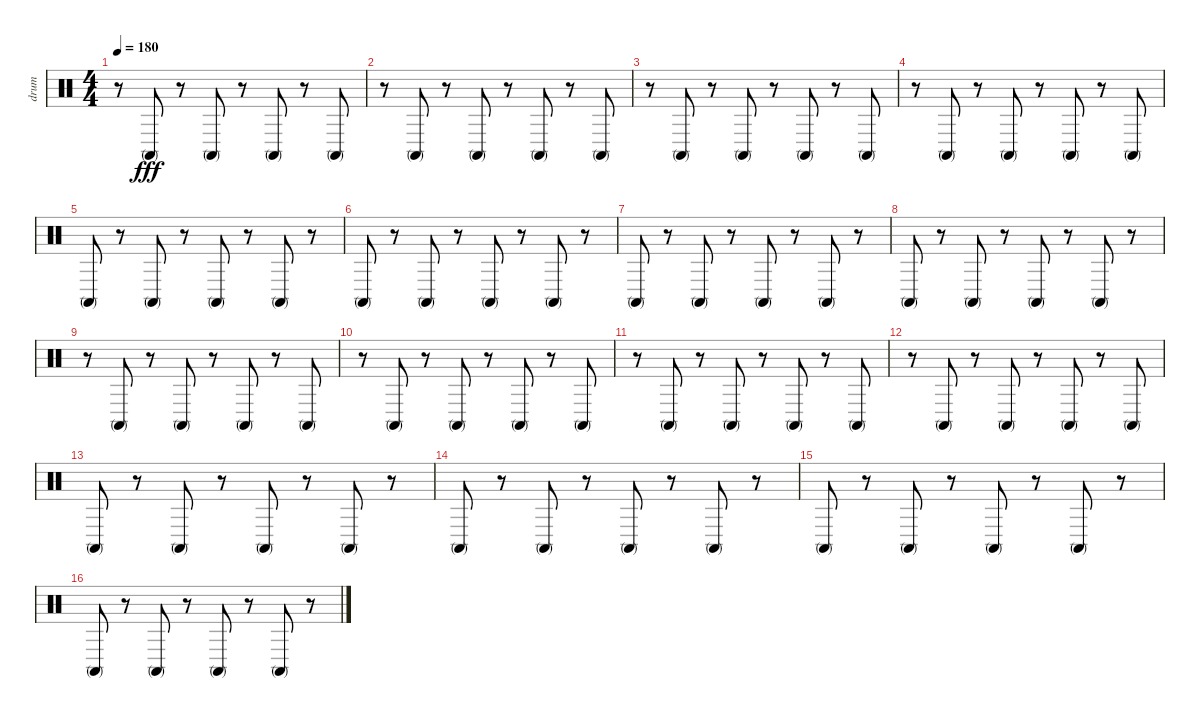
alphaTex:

\track ("drum" "drum") {instrument percussion}
\staff {score}
\articulation defaults
\ts (4 4)
\tempo 180
\clef neutral
\ks c
r.8{dy fff} "Conga high (mute)".8 r.8 "Conga high (mute)".8 r.8 "Conga high (mute)".8 r.8 "Conga high (mute)".8 |
r.8 "Conga high (mute)".8 r.8 "Conga high (mute)".8 r.8 "Conga high (mute)".8 r.8 "Conga high (mute)".8 |
r.8 "Conga high (mute)".8 r.8 "Conga high (mute)".8 r.8 "Conga high (mute)".8 r.8 "Conga high (mute)".8 |
r.8 "Conga high (mute)".8 r.8 "Conga high (mute)".8 r.8 "Conga high (mute)".8 r.8 "Conga high (mute)".8 |
"Conga high (mute)".8 r.8 "Conga high (mute)".8 r.8 "Conga high (mute)".8 r.8 "Conga high (mute)".8 r.8 |
"Conga high (mute)".8 r.8 "Conga high (mute)".8 r.8 "Conga high (mute)".8 r.8 "Conga high (mute)".8 r.8 |
"Conga high (mute)".8 r.8 "Conga high (mute)".8 r.8 "Conga high (mute)".8 r.8 "Conga high (mute)".8 r.8 |
"Conga high (mute)".8 r.8 "Conga high (mute)".8 r.8 "Conga high (mute)".8 r.8 "Conga high (mute)".8 r.8 |
r.8 "Conga high (mute)".8 r.8 "Conga high (mute)".8 r.8 "Conga high (mute)".8 r.8 "Conga high (mute)".8 |
r.8 "Conga high (mute)".8 r.8 "Conga high (mute)".8 r.8 "Conga high (mute)".8 r.8 "Conga high (mute)".8 |
r.8 "Conga high (mute)".8 r.8 "Conga high (mute)".8 r.8 "Conga high (mute)".8 r.8 "Conga high (mute)".8 |
r.8 "Conga high (mute)".8 r.8 "Conga high (mute)".8 r.8 "Conga high (mute)".8 r.8 "Conga high (mute)".8 |
"Conga high (mute)".8 r.8 "Conga high (mute)".8 r.8 "Conga high (mute)".8 r.8 "Conga high (mute)".8 r.8 |
"Conga high (mute)".8 r.8 "Conga high (mute)".8 r.8 "Conga high (mute)".8 r.8 "Conga high (mute)".8 r.8 |
"Conga high (mute)".8 r.8 "Conga high (mute)".8 r.8 "Conga high (mute)".8 r.8 "Conga high (mute)".8 r.8 |
"Conga high (mute)".8 r.8 "Conga high (mute)".8 r.8 "Conga high (mute)".8 r.8 "Conga high (mute)".8 r.8
